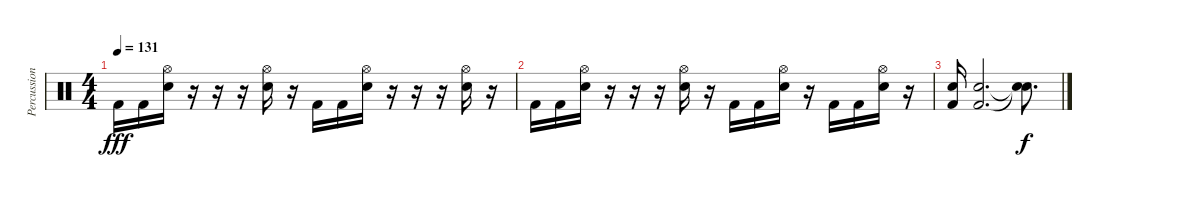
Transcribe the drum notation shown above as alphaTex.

\track ("Percussion" "Percussion") {instrument percussion}
\staff {score}
\articulation defaults
\ts (4 4)
\tempo 131
\clef neutral
\ks c "Kick (hit) 2".16{dy fff} "Kick (hit) 2".16
("Hi-Hat (open)" "Snare (hit) 2").16 r.16 r.16 r.16 ("Hi-Hat (open)" "Snare (hit) 2").16 r.16 "Kick (hit) 2".16 "Kick (hit) 2".16 ("Hi-Hat (open)" "Snare (hit) 2").16 r.16 r.16 r.16 ("Hi-Hat (open)" "Snare (hit) 2").16 r.16 |
"Kick (hit) 2".16 "Kick (hit) 2".16 ("Hi-Hat (open)" "Snare (hit) 2").16 r.16 r.16 r.16 ("Hi-Hat (open)" "Snare (hit) 2").16 r.16 "Kick (hit) 2".16 "Kick (hit) 2".16 ("Hi-Hat (open)" "Snare (hit) 2").16 r.16 "Kick (hit) 2".16 "Kick (hit) 2".16 ("Hi-Hat (open)" "Snare (hit) 2").16 r.16 |
("Snare (hit) 2" "Kick (hit) 2").16 ("Snare (hit) 2" "Kick (hit) 2").2{d} ("Snare (hit)"{t} "Snare (hit)"{t}).8{d dy f}
